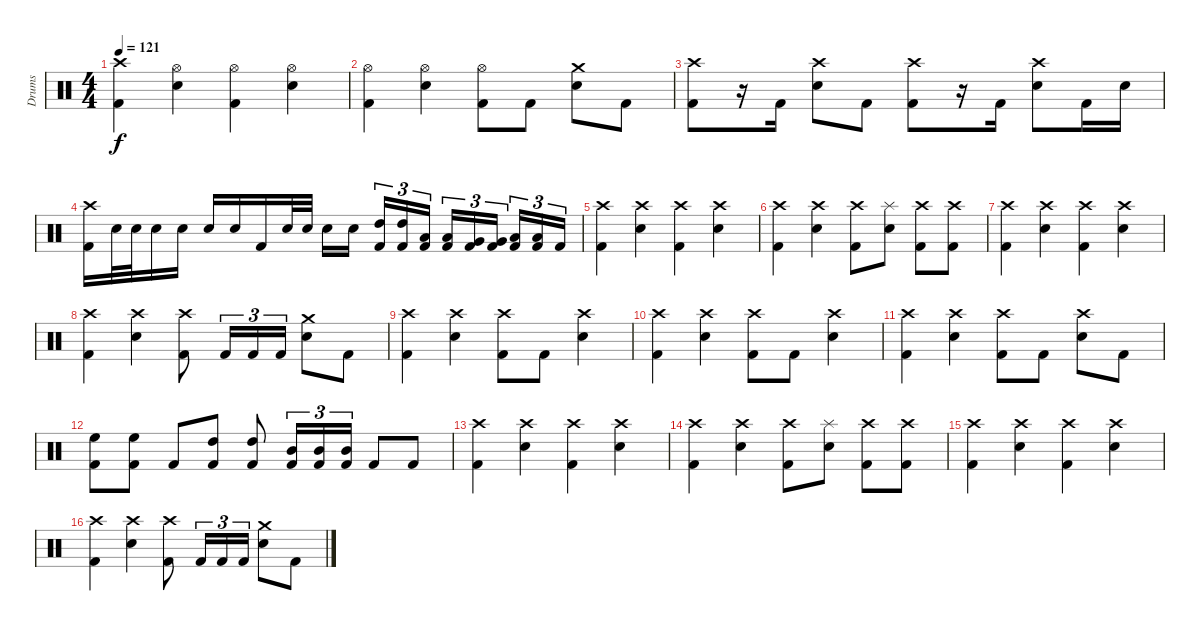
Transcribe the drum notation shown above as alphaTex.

\track ("Drums" "Drums") {instrument percussion}
\staff {score}
\articulation defaults
\ts (4 4)
\tempo 121
\clef neutral
\ks c
("Crash high (hit)" "Kick (hit) 2").4{dy f} ("Hi-Hat (open)" "Electric Snare (hit)").4 ("Hi-Hat (open)" "Kick (hit) 2").4 ("Hi-Hat (open)" "Electric Snare (hit)").4 |
("Hi-Hat (open)" "Kick (hit) 2").4 ("Hi-Hat (open)" "Electric Snare (hit)").4 ("Hi-Hat (open)" "Kick (hit) 2").8 "Kick (hit) 2".8 ("Crash medium (hit)" "Electric Snare (hit)").8 "Kick (hit) 2".8 |
("Crash high (hit)" "Kick (hit) 2").8 r.16 "Kick (hit) 2".16 ("Crash high (hit)" "Electric Snare (hit)").8 "Kick (hit) 2".8 ("Crash high (hit)" "Kick (hit) 2").8 r.16 "Kick (hit) 2".16 ("Crash high (hit)" "Electric Snare (hit)").8 "Kick (hit) 2".16 "Electric Snare (hit)".16 |
("Crash high (hit)" "Kick (hit) 2").16 "Electric Snare (hit)".32 "Electric Snare (hit)".32 "Electric Snare (hit)".16 "Electric Snare (hit)".16 "Electric Snare (hit)".16 "Electric Snare (hit)".16 "Kick (hit) 2".16 "Electric Snare (hit)".32 "Electric Snare (hit)".32 "Electric Snare (hit)".16 "Electric Snare (hit)".16 ("High Tom (hit)" "Kick (hit) 2").16{tu (3 2)} ("High Tom (hit)" "Kick (hit) 2").16{tu (3 2)} ("Low Tom (hit)" "Kick (hit) 2").16{tu (3 2)} ("Low Tom (hit)" "Kick (hit) 2").16{tu (3 2)} ("Very Low Tom (hit)" "Kick (hit) 2").16{tu (3 2)} ("Very Low Tom (hit)" "Kick (hit) 2").16{tu (3 2)} ("Low Floor Tom (hit)" "Kick (hit) 2").16{tu (3 2)} ("Low Floor Tom (hit)" "Kick (hit) 2").16{tu (3 2)} "Kick (hit) 2".16{tu (3 2)} |
("Crash high (hit)" "Kick (hit) 2").4 ("Crash high (hit)" "Electric Snare (hit)").4 ("Crash high (hit)" "Kick (hit) 2").4 ("Crash high (hit)" "Electric Snare (hit)").4 |
("Crash high (hit)" "Kick (hit) 2").4 ("Crash high (hit)" "Electric Snare (hit)").4 ("Crash high (hit)" "Kick (hit) 2").8 ("Splash (hit)" "Electric Snare (hit)").8 ("Crash high (hit)" "Kick (hit) 2").8 ("Crash high (hit)" "Kick (hit) 2").8 |
("Crash high (hit)" "Kick (hit) 2").4 ("Crash high (hit)" "Electric Snare (hit)").4 ("Crash high (hit)" "Kick (hit) 2").4 ("Crash high (hit)" "Electric Snare (hit)").4 |
("Crash high (hit)" "Kick (hit) 2").4 ("Crash high (hit)" "Electric Snare (hit)").4 ("Crash high (hit)" "Kick (hit) 2").8 "Kick (hit) 2".16{tu (3 2)} "Kick (hit) 2".16{tu (3 2)} "Kick (hit) 2".16{tu (3 2)} ("Crash medium (hit)" "Electric Snare (hit)").8 "Kick (hit) 2".8 |
("Crash high (hit)" "Kick (hit) 2").4 ("Crash high (hit)" "Electric Snare (hit)").4 ("Crash high (hit)" "Kick (hit) 2").8 "Kick (hit) 2".8 ("Crash high (hit)" "Electric Snare (hit)").4 |
("Crash high (hit)" "Kick (hit) 2").4 ("Crash high (hit)" "Electric Snare (hit)").4 ("Crash high (hit)" "Kick (hit) 2").8 "Kick (hit) 2".8 ("Crash high (hit)" "Electric Snare (hit)").4 |
("Crash high (hit)" "Kick (hit) 2").4 ("Crash high (hit)" "Electric Snare (hit)").4 ("Crash high (hit)" "Kick (hit) 2").8 "Kick (hit) 2".8 ("Crash high (hit)" "Electric Snare (hit)").8 "Kick (hit) 2".8 |
("High Floor Tom (hit)" "Kick (hit) 2").8 ("High Floor Tom (hit)" "Kick (hit) 2").8 "Kick (hit) 2".8 ("High Tom (hit)" "Kick (hit) 2").8 ("High Tom (hit)" "Kick (hit) 2").8 ("Mid Tom (hit)" "Kick (hit) 2").16{tu (3 2)} ("Mid Tom (hit)" "Kick (hit) 2").16{tu (3 2)} ("Mid Tom (hit)" "Kick (hit) 2").16{tu (3 2)} "Kick (hit) 2".8 "Kick (hit) 2".8 |
("Crash high (hit)" "Kick (hit) 2").4 ("Crash high (hit)" "Electric Snare (hit)").4 ("Crash high (hit)" "Kick (hit) 2").4 ("Crash high (hit)" "Electric Snare (hit)").4 |
("Crash high (hit)" "Kick (hit) 2").4 ("Crash high (hit)" "Electric Snare (hit)").4 ("Crash high (hit)" "Kick (hit) 2").8 ("Splash (hit)" "Electric Snare (hit)").8 ("Crash high (hit)" "Kick (hit) 2").8 ("Crash high (hit)" "Kick (hit) 2").8 |
("Crash high (hit)" "Kick (hit) 2").4 ("Crash high (hit)" "Electric Snare (hit)").4 ("Crash high (hit)" "Kick (hit) 2").4 ("Crash high (hit)" "Electric Snare (hit)").4 |
("Crash high (hit)" "Kick (hit) 2").4 ("Crash high (hit)" "Electric Snare (hit)").4 ("Crash high (hit)" "Kick (hit) 2").8 "Kick (hit) 2".16{tu (3 2)} "Kick (hit) 2".16{tu (3 2)} "Kick (hit) 2".16{tu (3 2)} ("Crash medium (hit)" "Electric Snare (hit)").8 "Kick (hit) 2".8
